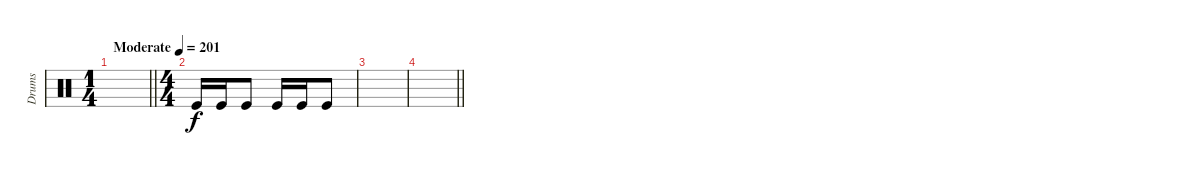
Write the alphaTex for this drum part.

\track ("Drums" "Drums") {instrument percussion}
\staff
\articulation defaults
\ts (1 4)
\tempo (201 "Moderate")
\clef neutral
\barLineRight lightlight
\ks c
|
\ts (4 4)
"Kick (hit)".16 "Kick (hit)".16 "Kick (hit)".8 "Kick (hit)".16 "Kick (hit)".16 "Kick (hit)".8 |
|
\barLineRight lightlight
